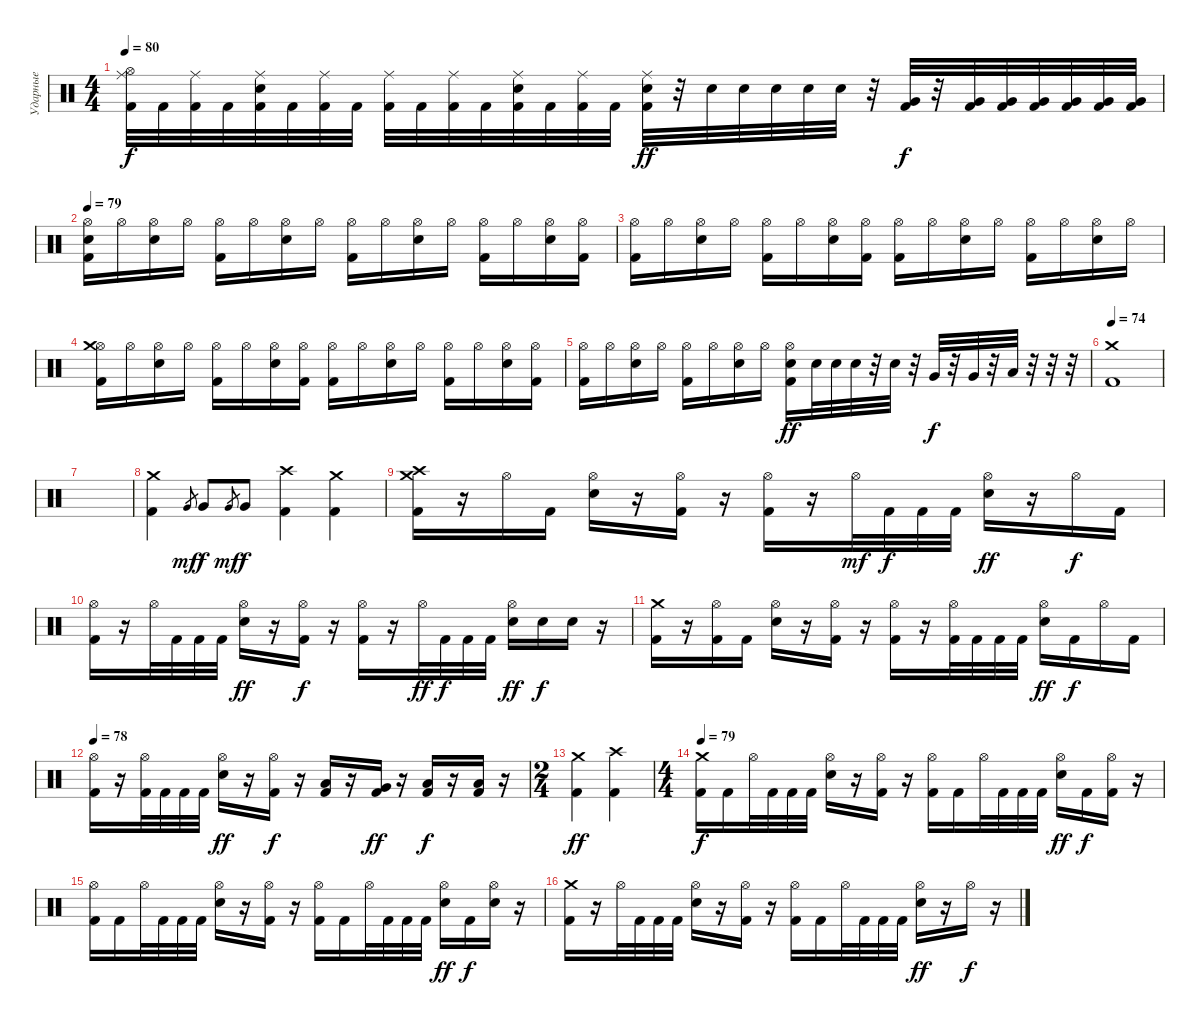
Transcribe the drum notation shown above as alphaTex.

\track ("Ударные" "Ударные") {instrument percussion}
\staff {score}
\articulation defaults
\ts (4 4)
\tempo 80
\clef neutral
\ks c
("Ride (middle)" "Hi-Hat (open)" "Kick (hit) 2").32{dy f} "Kick (hit) 2".32 ("Ride (middle)" "Kick (hit) 2").32 "Kick (hit) 2".32 ("Ride (middle)" "Electric Snare (hit)" "Kick (hit) 2").32 "Kick (hit) 2".32 ("Ride (middle)" "Kick (hit) 2").32 "Kick (hit) 2".32 ("Ride (middle)" "Kick (hit) 2").32 "Kick (hit) 2".32 ("Ride (middle)" "Kick (hit) 2").32 "Kick (hit) 2".32 ("Ride (middle)" "Electric Snare (hit)" "Kick (hit) 2").32 "Kick (hit) 2".32 ("Ride (middle)" "Kick (hit) 2").32 "Kick (hit) 2".32 ("Ride (middle)" "Electric Snare (hit)" "Kick (hit) 2").32{dy ff} r.32 "Electric Snare (hit)".32 "Electric Snare (hit)".32 "Electric Snare (hit)".32 "Electric Snare (hit)".32 "Electric Snare (hit)".32 r.32 ("Very Low Tom (hit)" "Kick (hit) 2").32{dy f} r.32 ("Very Low Tom (hit)" "Kick (hit) 2").32 ("Very Low Tom (hit)" "Kick (hit) 2").32 ("Very Low Tom (hit)" "Kick (hit) 2").32 ("Very Low Tom (hit)" "Kick (hit) 2").32 ("Very Low Tom (hit)" "Kick (hit) 2").32 ("Very Low Tom (hit)" "Kick (hit) 2").32 |
\tempo 79
("Hi-Hat (open)" "Electric Snare (hit)" "Kick (hit) 2").16 "Hi-Hat (open)".16 ("Hi-Hat (open)" "Electric Snare (hit)").16 "Hi-Hat (open)".16 ("Hi-Hat (open)" "Kick (hit) 2").16 "Hi-Hat (open)".16 ("Hi-Hat (open)" "Electric Snare (hit)").16 "Hi-Hat (open)".16 ("Hi-Hat (open)" "Kick (hit) 2").16 "Hi-Hat (open)".16 ("Hi-Hat (open)" "Electric Snare (hit)").16 "Hi-Hat (open)".16 ("Hi-Hat (open)" "Kick (hit) 2").16 "Hi-Hat (open)".16 ("Hi-Hat (open)" "Electric Snare (hit)").16 ("Hi-Hat (open)" "Kick (hit) 2").16 |
("Hi-Hat (open)" "Kick (hit) 2").16 "Hi-Hat (open)".16 ("Hi-Hat (open)" "Electric Snare (hit)").16 "Hi-Hat (open)".16 ("Hi-Hat (open)" "Kick (hit) 2").16 "Hi-Hat (open)".16 ("Hi-Hat (open)" "Electric Snare (hit)").16 ("Hi-Hat (open)" "Kick (hit) 2").16 ("Hi-Hat (open)" "Kick (hit) 2").16 "Hi-Hat (open)".16 ("Hi-Hat (open)" "Electric Snare (hit)").16 "Hi-Hat (open)".16 ("Hi-Hat (open)" "Kick (hit) 2").16 "Hi-Hat (open)".16 ("Hi-Hat (open)" "Electric Snare (hit)").16 "Hi-Hat (open)".16 |
("Hi-Hat (open)" "Crash medium (hit)" "Kick (hit) 2").16 "Hi-Hat (open)".16 ("Hi-Hat (open)" "Electric Snare (hit)").16 "Hi-Hat (open)".16 ("Hi-Hat (open)" "Kick (hit) 2").16 "Hi-Hat (open)".16 ("Hi-Hat (open)" "Electric Snare (hit)").16 ("Hi-Hat (open)" "Kick (hit) 2").16 ("Hi-Hat (open)" "Kick (hit) 2").16 "Hi-Hat (open)".16 ("Hi-Hat (open)" "Electric Snare (hit)").16 "Hi-Hat (open)".16 ("Hi-Hat (open)" "Kick (hit) 2").16 "Hi-Hat (open)".16 ("Hi-Hat (open)" "Electric Snare (hit)").16 ("Hi-Hat (open)" "Kick (hit) 2").16 |
("Hi-Hat (open)" "Kick (hit) 2").16 "Hi-Hat (open)".16 ("Hi-Hat (open)" "Electric Snare (hit)").16 "Hi-Hat (open)".16 ("Hi-Hat (open)" "Kick (hit) 2").16 "Hi-Hat (open)".16 ("Hi-Hat (open)" "Electric Snare (hit)").16 "Hi-Hat (open)".16 ("Hi-Hat (open)" "Electric Snare (hit)" "Kick (hit) 2").16{dy ff} "Electric Snare (hit)".32 "Electric Snare (hit)".32 "Electric Snare (hit)".32 r.32 "Electric Snare (hit)".32 r.32 "Very Low Tom (hit)".32{dy f} r.32 "Very Low Tom (hit)".32 r.32 "Low Floor Tom (hit)".32 r.32 r.32 r.32 |
\tempo 74
("Crash medium (hit)" "Kick (hit) 2").1 |
|
("Crash medium (hit)" "Kick (hit) 2").4 "Very Low Tom (hit)".8{gr dy mf} "Very Low Tom (hit)".8{dy f} "Very Low Tom (hit)".8{gr dy mf} "Very Low Tom (hit)".8{dy f} ("Crash high (hit)" "Kick (hit) 2").4 ("Crash medium (hit)" "Kick (hit) 2").4 |
("Crash medium (hit)" "Crash high (hit)" "Kick (hit) 2").16 r.16 "Hi-Hat (open)".16 "Kick (hit) 2".16 ("Hi-Hat (open)" "Electric Snare (hit)").16 r.16 ("Hi-Hat (open)" "Kick (hit) 2").16 r.16 ("Hi-Hat (open)" "Kick (hit) 2").16 r.16 "Hi-Hat (open)".32{dy mf} "Kick (hit) 2".32{dy f} "Kick (hit) 2".32 "Kick (hit) 2".32 ("Hi-Hat (open)" "Electric Snare (hit)").16{dy ff} r.16 "Hi-Hat (open)".16{dy f} "Kick (hit) 2".16 |
("Hi-Hat (open)" "Kick (hit) 2").16 r.16 "Hi-Hat (open)".32 "Kick (hit) 2".32 "Kick (hit) 2".32 "Kick (hit) 2".32 ("Hi-Hat (open)" "Electric Snare (hit)").16{dy ff} r.16 ("Hi-Hat (open)" "Kick (hit) 2").16{dy f} r.16 ("Hi-Hat (open)" "Kick (hit) 2").16 r.16 "Hi-Hat (open)".32{dy ff} "Kick (hit) 2".32{dy f} "Kick (hit) 2".32 "Kick (hit) 2".32 ("Hi-Hat (open)" "Electric Snare (hit)").16{dy ff} "Electric Snare (hit)".16{dy f} "Electric Snare (hit)".16 r.16 |
("Crash medium (hit)" "Kick (hit) 2").16 r.16 ("Hi-Hat (open)" "Kick (hit) 2").16 "Kick (hit) 2".16 ("Hi-Hat (open)" "Electric Snare (hit)").16 r.16 ("Hi-Hat (open)" "Kick (hit) 2").16 r.16 ("Hi-Hat (open)" "Kick (hit) 2").16 r.16 ("Hi-Hat (open)" "Kick (hit) 2").32 "Kick (hit) 2".32 "Kick (hit) 2".32 "Kick (hit) 2".32 ("Hi-Hat (open)" "Electric Snare (hit)").16{dy ff} "Kick (hit) 2".16{dy f} "Hi-Hat (open)".16 "Kick (hit) 2".16 |
\tempo 78
("Hi-Hat (open)" "Kick (hit) 2").16 r.16 ("Hi-Hat (open)" "Kick (hit) 2").32 "Kick (hit) 2".32 "Kick (hit) 2".32 "Kick (hit) 2".32 ("Hi-Hat (open)" "Electric Snare (hit)").16{dy ff} r.16 ("Hi-Hat (open)" "Kick (hit) 2").16{dy f} r.16 ("Low Tom (hit)" "Kick (hit) 2").16 r.16 ("Very Low Tom (hit)" "Kick (hit) 2").16{dy ff} r.16 ("Low Floor Tom (hit)" "Kick (hit) 2").16{dy f} r.16 ("Low Floor Tom (hit)" "Kick (hit) 2").16 r.16 |
\ts (2 4)
("Crash medium (hit)" "Kick (hit) 2").4{dy ff} ("Crash high (hit)" "Kick (hit) 2").4 |
\ts (4 4)
\tempo 79
("Crash medium (hit)" "Kick (hit) 2").16{dy f} "Kick (hit) 2".16 "Hi-Hat (open)".32 "Kick (hit) 2".32 "Kick (hit) 2".32 "Kick (hit) 2".32 ("Hi-Hat (open)" "Electric Snare (hit)").16 r.16 ("Hi-Hat (open)" "Kick (hit) 2").16 r.16 ("Hi-Hat (open)" "Kick (hit) 2").16 "Kick (hit) 2".16 "Hi-Hat (open)".32 "Kick (hit) 2".32 "Kick (hit) 2".32 "Kick (hit) 2".32 ("Hi-Hat (open)" "Electric Snare (hit)").16{dy ff} "Kick (hit) 2".16{dy f} ("Hi-Hat (open)" "Kick (hit) 2").16 r.16 |
("Hi-Hat (open)" "Kick (hit) 2").16 "Kick (hit) 2".16 "Hi-Hat (open)".32 "Kick (hit) 2".32 "Kick (hit) 2".32 "Kick (hit) 2".32 ("Hi-Hat (open)" "Electric Snare (hit)").16 r.16 ("Hi-Hat (open)" "Kick (hit) 2").16 r.16 ("Hi-Hat (open)" "Kick (hit) 2").16 "Kick (hit) 2".16 "Hi-Hat (open)".32 "Kick (hit) 2".32 "Kick (hit) 2".32 "Kick (hit) 2".32 ("Hi-Hat (open)" "Electric Snare (hit)").16{dy ff} "Kick (hit) 2".16{dy f} ("Hi-Hat (open)" "Electric Snare (hit)").16 r.16 |
("Crash medium (hit)" "Kick (hit) 2").16 r.16 "Hi-Hat (open)".32 "Kick (hit) 2".32 "Kick (hit) 2".32 "Kick (hit) 2".32 ("Hi-Hat (open)" "Electric Snare (hit)").16 r.16 ("Hi-Hat (open)" "Kick (hit) 2").16 r.16 ("Hi-Hat (open)" "Kick (hit) 2").16 "Kick (hit) 2".16 "Hi-Hat (open)".32 "Kick (hit) 2".32 "Kick (hit) 2".32 "Kick (hit) 2".32 ("Hi-Hat (open)" "Electric Snare (hit)").16{dy ff} r.16 "Hi-Hat (open)".16{dy f} r.16
